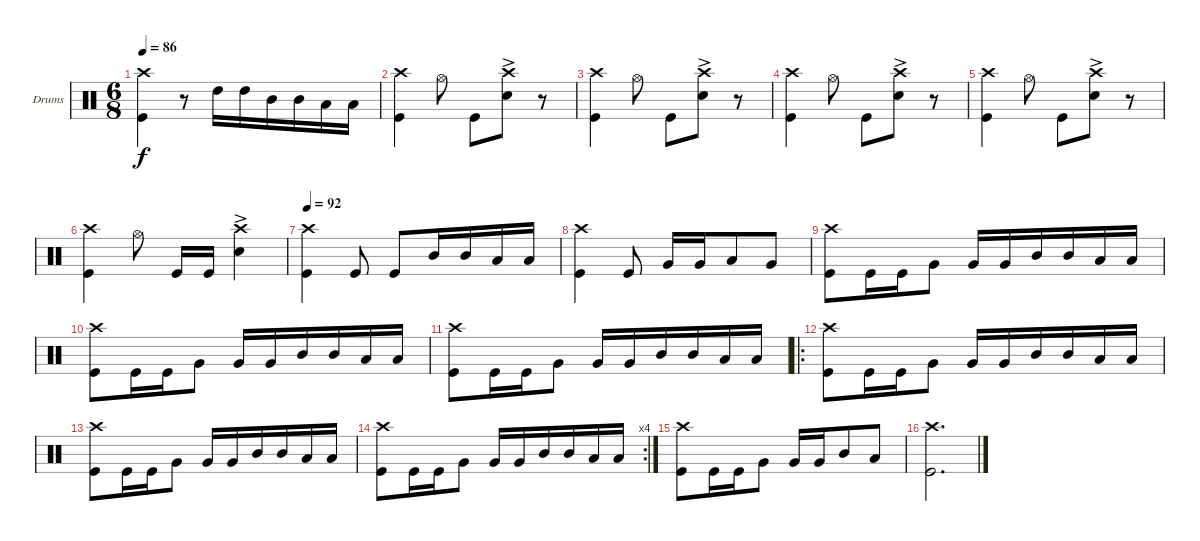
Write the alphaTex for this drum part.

\defaultSystemsLayout 4
\bracketExtendMode groupsimilarinstruments
\firstSystemTrackNameOrientation horizontal
\otherSystemsTrackNameOrientation horizontal
\track ("Drumkit" "Drums") {instrument percussion}
\staff {score}
\articulation defaults
\ts (6 8)
\tempo 86
\clef neutral
\ks c
("Kick (hit)" "Crash high (hit)").4{dy f} r.8 "High Tom (hit)".16 "High Tom (hit)".16 "Mid Tom (hit)".16 "Mid Tom (hit)".16 "Low Tom (hit)".16 "Low Tom (hit)".16 |
("Kick (hit)" "Crash high (hit)").4 "Hi-Hat (open)".8 "Kick (hit)".8 ("Snare (hit) 2"{ac} "Crash high (hit)").8 r.8 |
("Kick (hit)" "Crash high (hit)").4 "Hi-Hat (open)".8 "Kick (hit)".8 ("Snare (hit) 2"{ac} "Crash high (hit)").8 r.8 |
("Kick (hit)" "Crash high (hit)").4 "Hi-Hat (open)".8 "Kick (hit)".8 ("Snare (hit) 2"{ac} "Crash high (hit)").8 r.8 |
("Kick (hit)" "Crash high (hit)").4 "Hi-Hat (open)".8 "Kick (hit)".8 ("Snare (hit) 2"{ac} "Crash high (hit)").8 r.8 |
("Kick (hit)" "Crash high (hit)").4 "Hi-Hat (open)".8 "Kick (hit)".16 "Kick (hit)".16 ("Crash high (hit)" "Snare (hit) 2"{ac}).4 |
\tempo 92
("Kick (hit)" "Crash high (hit)").4 "Kick (hit)".8 "Kick (hit)".8 "Mid Tom (hit)".16 "Mid Tom (hit)".16 "Low Tom (hit)".16 "Low Tom (hit)".16 |
("Kick (hit)" "Crash high (hit)").4 "Kick (hit)".8 "Very Low Tom (hit)".16 "Very Low Tom (hit)".16 "Low Tom (hit)".8 "Very Low Tom (hit)".8 |
("Kick (hit)" "Crash high (hit)").8 "Kick (hit)".16 "Kick (hit)".16 "Very Low Tom (hit)".8 "Very Low Tom (hit)".16 "Very Low Tom (hit)".16 "Mid Tom (hit)".16 "Mid Tom (hit)".16 "Low Tom (hit)".16 "Low Tom (hit)".16 |
("Kick (hit)" "Crash high (hit)").8 "Kick (hit)".16 "Kick (hit)".16 "Very Low Tom (hit)".8 "Very Low Tom (hit)".16 "Very Low Tom (hit)".16 "Mid Tom (hit)".16 "Mid Tom (hit)".16 "Low Tom (hit)".16 "Low Tom (hit)".16 |
("Kick (hit)" "Crash high (hit)").8 "Kick (hit)".16 "Kick (hit)".16 "Very Low Tom (hit)".8 "Very Low Tom (hit)".16 "Very Low Tom (hit)".16 "Mid Tom (hit)".16 "Mid Tom (hit)".16 "Low Tom (hit)".16 "Low Tom (hit)".16 |
\ro
("Kick (hit)" "Crash high (hit)").8 "Kick (hit)".16 "Kick (hit)".16 "Very Low Tom (hit)".8 "Very Low Tom (hit)".16 "Very Low Tom (hit)".16 "Mid Tom (hit)".16 "Mid Tom (hit)".16 "Low Tom (hit)".16 "Low Tom (hit)".16 |
("Kick (hit)" "Crash high (hit)").8 "Kick (hit)".16 "Kick (hit)".16 "Very Low Tom (hit)".8 "Very Low Tom (hit)".16 "Very Low Tom (hit)".16 "Mid Tom (hit)".16 "Mid Tom (hit)".16 "Low Tom (hit)".16 "Low Tom (hit)".16 |
\rc 4
("Kick (hit)" "Crash high (hit)").8 "Kick (hit)".16 "Kick (hit)".16 "Very Low Tom (hit)".8 "Very Low Tom (hit)".16 "Very Low Tom (hit)".16 "Mid Tom (hit)".16 "Mid Tom (hit)".16 "Low Tom (hit)".16 "Low Tom (hit)".16 |
("Kick (hit)" "Crash high (hit)").8 "Kick (hit)".16 "Kick (hit)".16 "Very Low Tom (hit)".8 "Very Low Tom (hit)".16 "Very Low Tom (hit)".16 "Mid Tom (hit)".8 "Low Tom (hit)".8 |
("Kick (hit)" "Crash high (hit)").2{d}
